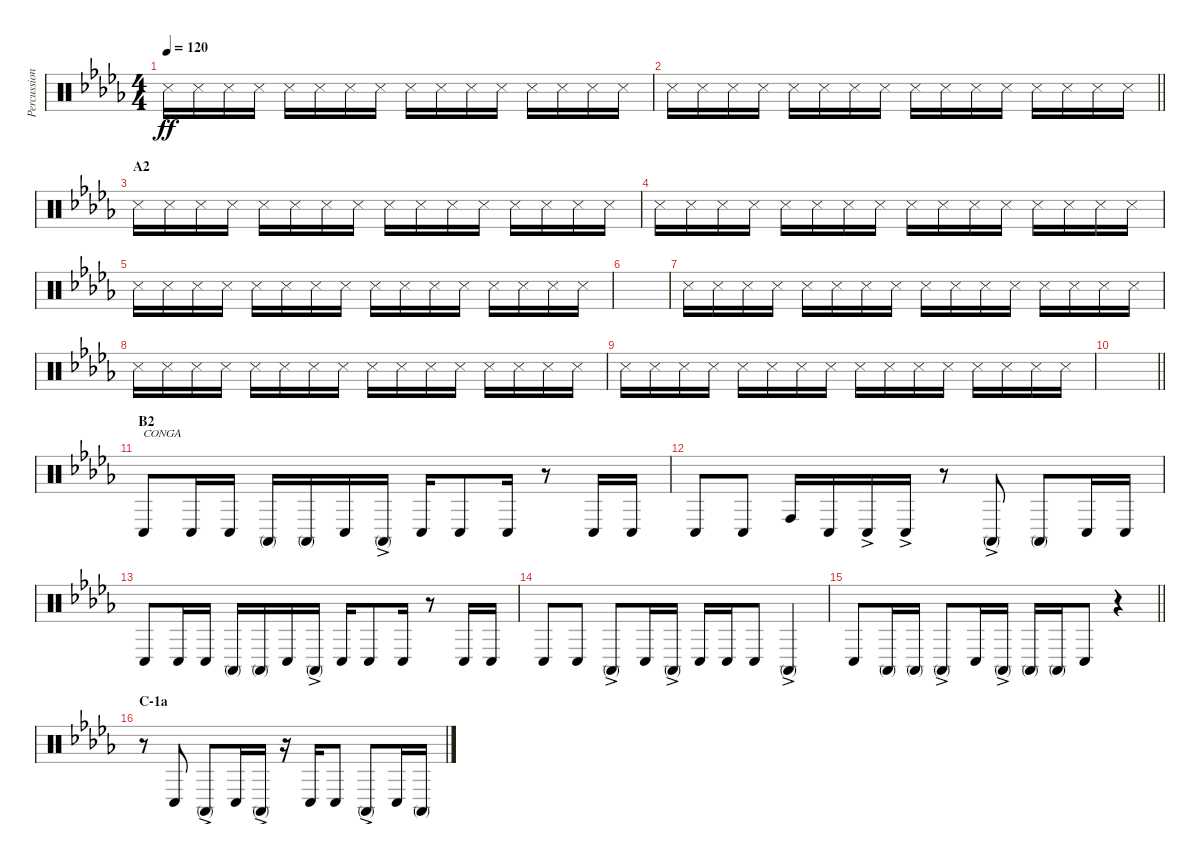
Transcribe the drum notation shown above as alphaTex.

\track ("Percussion A (Tainaka Ritsu)" "Percussion") {instrument percussion}
\staff {score}
\articulation defaults
\ts (4 4)
\tempo 120
\clef neutral
\ks db "Snare (side stick) 3".16{dy ff} "Snare (side stick) 3".16 "Snare (side stick) 3".16 "Snare (side stick) 3".16 "Snare (side stick) 3".16 "Snare (side stick) 3".16 "Snare (side stick) 3".16 "Snare (side stick) 3".16 "Snare (side stick) 3".16 "Snare (side stick) 3".16 "Snare (side stick) 3".16 "Snare (side stick) 3".16 "Snare (side stick) 3".16 "Snare (side stick) 3".16 "Snare (side stick) 3".16 "Snare (side stick) 3".16
|
\barLineRight lightlight "Snare (side stick) 3".16 "Snare (side stick) 3".16 "Snare (side stick) 3".16 "Snare (side stick) 3".16 "Snare (side stick) 3".16 "Snare (side stick) 3".16 "Snare (side stick) 3".16 "Snare (side stick) 3".16 "Snare (side stick) 3".16 "Snare (side stick) 3".16 "Snare (side stick) 3".16 "Snare (side stick) 3".16 "Snare (side stick) 3".16 "Snare (side stick) 3".16 "Snare (side stick) 3".16 "Snare (side stick) 3".16
|
\section ("" "A2")
"Snare (side stick) 3".16 "Snare (side stick) 3".16 "Snare (side stick) 3".16 "Snare (side stick) 3".16 "Snare (side stick) 3".16 "Snare (side stick) 3".16 "Snare (side stick) 3".16 "Snare (side stick) 3".16 "Snare (side stick) 3".16 "Snare (side stick) 3".16 "Snare (side stick) 3".16 "Snare (side stick) 3".16 "Snare (side stick) 3".16 "Snare (side stick) 3".16 "Snare (side stick) 3".16 "Snare (side stick) 3".16 |
"Snare (side stick) 3".16 "Snare (side stick) 3".16 "Snare (side stick) 3".16 "Snare (side stick) 3".16 "Snare (side stick) 3".16 "Snare (side stick) 3".16 "Snare (side stick) 3".16 "Snare (side stick) 3".16 "Snare (side stick) 3".16 "Snare (side stick) 3".16 "Snare (side stick) 3".16 "Snare (side stick) 3".16 "Snare (side stick) 3".16 "Snare (side stick) 3".16 "Snare (side stick) 3".16 "Snare (side stick) 3".16 |
"Snare (side stick) 3".16 "Snare (side stick) 3".16 "Snare (side stick) 3".16 "Snare (side stick) 3".16 "Snare (side stick) 3".16 "Snare (side stick) 3".16 "Snare (side stick) 3".16 "Snare (side stick) 3".16 "Snare (side stick) 3".16 "Snare (side stick) 3".16 "Snare (side stick) 3".16 "Snare (side stick) 3".16 "Snare (side stick) 3".16 "Snare (side stick) 3".16 "Snare (side stick) 3".16 "Snare (side stick) 3".16 |
|
"Snare (side stick) 3".16 "Snare (side stick) 3".16 "Snare (side stick) 3".16 "Snare (side stick) 3".16 "Snare (side stick) 3".16 "Snare (side stick) 3".16 "Snare (side stick) 3".16 "Snare (side stick) 3".16 "Snare (side stick) 3".16 "Snare (side stick) 3".16 "Snare (side stick) 3".16 "Snare (side stick) 3".16 "Snare (side stick) 3".16 "Snare (side stick) 3".16 "Snare (side stick) 3".16 "Snare (side stick) 3".16 |
"Snare (side stick) 3".16 "Snare (side stick) 3".16 "Snare (side stick) 3".16 "Snare (side stick) 3".16 "Snare (side stick) 3".16 "Snare (side stick) 3".16 "Snare (side stick) 3".16 "Snare (side stick) 3".16 "Snare (side stick) 3".16 "Snare (side stick) 3".16 "Snare (side stick) 3".16 "Snare (side stick) 3".16 "Snare (side stick) 3".16 "Snare (side stick) 3".16 "Snare (side stick) 3".16 "Snare (side stick) 3".16 |
"Snare (side stick) 3".16 "Snare (side stick) 3".16 "Snare (side stick) 3".16 "Snare (side stick) 3".16 "Snare (side stick) 3".16 "Snare (side stick) 3".16 "Snare (side stick) 3".16 "Snare (side stick) 3".16 "Snare (side stick) 3".16 "Snare (side stick) 3".16 "Snare (side stick) 3".16 "Snare (side stick) 3".16 "Snare (side stick) 3".16 "Snare (side stick) 3".16 "Snare (side stick) 3".16 "Snare (side stick) 3".16 |
\barLineRight lightlight
|
\section ("" "B2")
"Conga low (hit)".8{txt "CONGA"} "Conga low (hit)".16 "Conga low (hit)".16 "Conga high (mute)".16 "Conga high (mute)".16 "Conga low (hit)".16 "Conga high (mute)"{ac}.16 "Conga low (hit)".16 "Conga low (hit)".8 "Conga low (hit)".16 r.8 "Conga low (hit)".16 "Conga low (hit)".16 |
"Conga low (hit)".8 "Conga low (hit)".8 "Conga high (hit)".16 "Conga low (hit)".16 "Conga low (hit)"{ac}.16 "Conga low (hit)"{ac}.16 r.8 "Conga high (mute)"{ac}.8 "Conga high (mute)".8 "Conga low (hit)".16 "Conga low (hit)".16 |
"Conga low (hit)".8 "Conga low (hit)".16 "Conga low (hit)".16 "Conga high (mute)".16 "Conga high (mute)".16 "Conga low (hit)".16 "Conga high (mute)"{ac}.16 "Conga low (hit)".16 "Conga low (hit)".8 "Conga low (hit)".16 r.8 "Conga low (hit)".16 "Conga low (hit)".16 |
"Conga low (hit)".8 "Conga low (hit)".8 "Conga high (mute)"{ac}.8 "Conga low (hit)".16 "Conga high (mute)"{ac}.16 "Conga low (hit)".16 "Conga low (hit)".16 "Conga low (hit)".8 "Conga high (mute)"{ac}.4 |
\barLineRight lightlight "Conga low (hit)".8 "Conga high (mute)".16 "Conga high (mute)".16 "Conga high (mute)"{ac}.8 "Conga low (hit)".16 "Conga high (mute)"{ac}.16 "Conga high (mute)".16 "Conga high (mute)".16 "Conga low (hit)".8
r.4 |
\section ("" "C-1a")
r.8 "Conga low (hit)".8 "Conga high (mute)"{ac}.8 "Conga low (hit)".16 "Conga high (mute)"{ac}.16 r.16 "Conga low (hit)".16 "Conga low (hit)".8 "Conga high (mute)"{ac}.8 "Conga low (hit)".16 "Conga high (mute)".16
